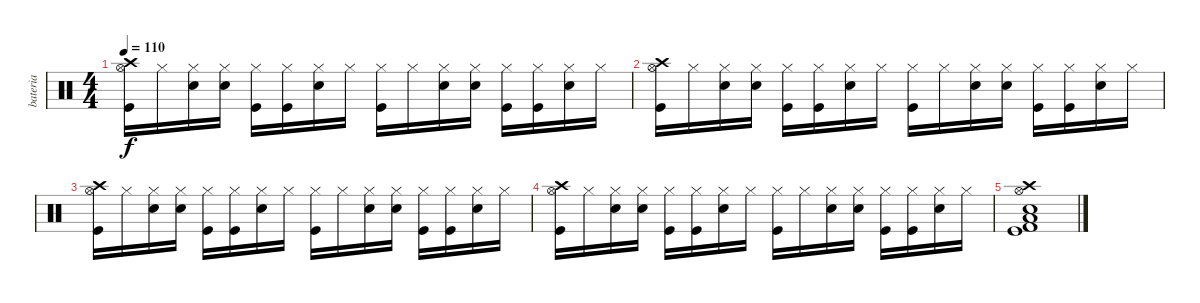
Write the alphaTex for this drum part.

\track ("bateria" "bateria") {instrument percussion}
\staff {score}
\articulation defaults
\ts (4 4)
\tempo 110
\clef neutral
\ks c
("Crash high (hit)" "Hi-Hat (open)" "Kick (hit)").16{dy f} "Hi-Hat (closed)".16 ("Hi-Hat (closed)" "Snare (hit) 2").16 ("Hi-Hat (closed)" "Snare (hit) 2").16 ("Hi-Hat (closed)" "Kick (hit)").16 ("Hi-Hat (closed)" "Kick (hit)").16 ("Hi-Hat (closed)" "Snare (hit) 2").16 "Hi-Hat (closed)".16 ("Hi-Hat (closed)" "Kick (hit)").16 "Hi-Hat (closed)".16 ("Hi-Hat (closed)" "Snare (hit) 2").16 ("Hi-Hat (closed)" "Snare (hit) 2").16 ("Hi-Hat (closed)" "Kick (hit)").16 ("Hi-Hat (closed)" "Kick (hit)").16 ("Hi-Hat (closed)" "Snare (hit) 2").16 "Hi-Hat (closed)".16 |
("Crash high (hit)" "Hi-Hat (open)" "Kick (hit)").16 "Hi-Hat (closed)".16 ("Hi-Hat (closed)" "Snare (hit) 2").16 ("Hi-Hat (closed)" "Snare (hit) 2").16 ("Hi-Hat (closed)" "Kick (hit)").16 ("Hi-Hat (closed)" "Kick (hit)").16 ("Hi-Hat (closed)" "Snare (hit) 2").16 "Hi-Hat (closed)".16 ("Hi-Hat (closed)" "Kick (hit)").16 "Hi-Hat (closed)".16 ("Hi-Hat (closed)" "Snare (hit) 2").16 ("Hi-Hat (closed)" "Snare (hit) 2").16 ("Hi-Hat (closed)" "Kick (hit)").16 ("Hi-Hat (closed)" "Kick (hit)").16 ("Hi-Hat (closed)" "Snare (hit) 2").16 "Hi-Hat (closed)".16 |
("Crash high (hit)" "Hi-Hat (open)" "Kick (hit)").16 "Hi-Hat (closed)".16 ("Hi-Hat (closed)" "Snare (hit) 2").16 ("Hi-Hat (closed)" "Snare (hit) 2").16 ("Hi-Hat (closed)" "Kick (hit)").16 ("Hi-Hat (closed)" "Kick (hit)").16 ("Hi-Hat (closed)" "Snare (hit) 2").16 "Hi-Hat (closed)".16 ("Hi-Hat (closed)" "Kick (hit)").16 "Hi-Hat (closed)".16 ("Hi-Hat (closed)" "Snare (hit) 2").16 ("Hi-Hat (closed)" "Snare (hit) 2").16 ("Hi-Hat (closed)" "Kick (hit)").16 ("Hi-Hat (closed)" "Kick (hit)").16 ("Hi-Hat (closed)" "Snare (hit) 2").16 "Hi-Hat (closed)".16 |
("Crash high (hit)" "Hi-Hat (open)" "Kick (hit)").16 "Hi-Hat (closed)".16 ("Hi-Hat (closed)" "Snare (hit) 2").16 ("Hi-Hat (closed)" "Snare (hit) 2").16 ("Hi-Hat (closed)" "Kick (hit)").16 ("Hi-Hat (closed)" "Kick (hit)").16 ("Hi-Hat (closed)" "Snare (hit) 2").16 "Hi-Hat (closed)".16 ("Hi-Hat (closed)" "Kick (hit)").16 "Hi-Hat (closed)".16 ("Hi-Hat (closed)" "Snare (hit) 2").16 ("Hi-Hat (closed)" "Snare (hit) 2").16 ("Hi-Hat (closed)" "Kick (hit)").16 ("Hi-Hat (closed)" "Kick (hit)").16 ("Hi-Hat (closed)" "Snare (hit) 2").16 "Hi-Hat (closed)".16 |
("Crash high (hit)" "Kick (hit) 2" "Snare (hit) 2" "Low Floor Tom (hit)" "Hi-Hat (open)" "Kick (hit)").1
